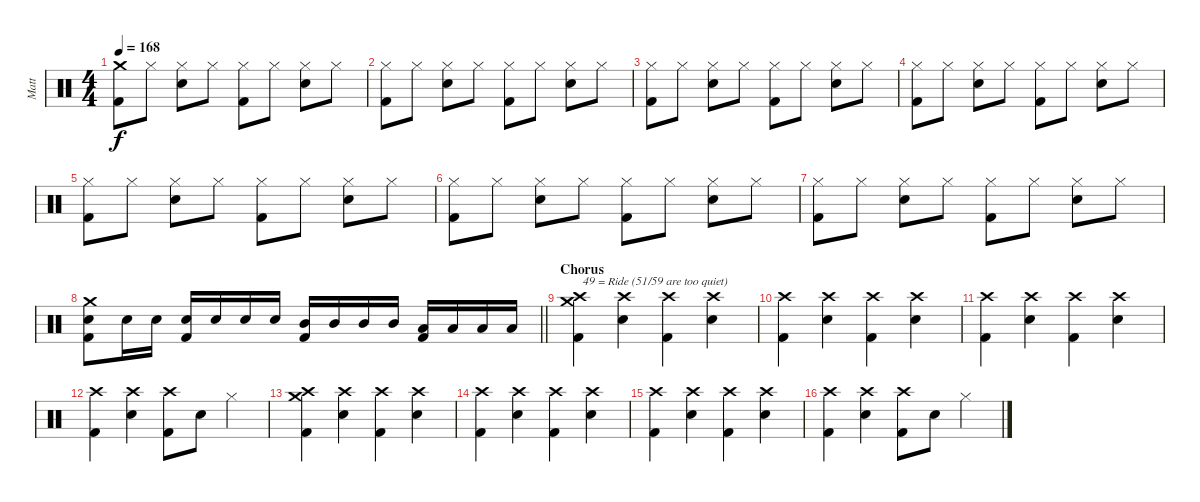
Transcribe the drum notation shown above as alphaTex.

\track ("Matt" "Matt") {instrument percussion}
\staff {score}
\articulation defaults
\ts (4 4)
\tempo 168
\clef neutral
\ks c
("Crash medium (hit)" "Kick (hit) 2").8{dy f} "Hi-Hat (closed)".8 ("Hi-Hat (closed)" "Electric Snare (hit)").8 "Hi-Hat (closed)".8 ("Hi-Hat (closed)" "Kick (hit) 2").8 "Hi-Hat (closed)".8 ("Hi-Hat (closed)" "Electric Snare (hit)").8 "Hi-Hat (closed)".8 |
("Hi-Hat (closed)" "Kick (hit) 2").8 "Hi-Hat (closed)".8 ("Hi-Hat (closed)" "Electric Snare (hit)").8 "Hi-Hat (closed)".8 ("Hi-Hat (closed)" "Kick (hit) 2").8 "Hi-Hat (closed)".8 ("Hi-Hat (closed)" "Electric Snare (hit)").8 "Hi-Hat (closed)".8 |
("Hi-Hat (closed)" "Kick (hit) 2").8 "Hi-Hat (closed)".8 ("Hi-Hat (closed)" "Electric Snare (hit)").8 "Hi-Hat (closed)".8 ("Hi-Hat (closed)" "Kick (hit) 2").8 "Hi-Hat (closed)".8 ("Hi-Hat (closed)" "Electric Snare (hit)").8 "Hi-Hat (closed)".8 |
("Hi-Hat (closed)" "Kick (hit) 2").8 "Hi-Hat (closed)".8 ("Hi-Hat (closed)" "Electric Snare (hit)").8 "Hi-Hat (closed)".8 ("Hi-Hat (closed)" "Kick (hit) 2").8 "Hi-Hat (closed)".8 ("Hi-Hat (closed)" "Electric Snare (hit)").8 "Hi-Hat (closed)".8 |
("Hi-Hat (closed)" "Kick (hit) 2").8 "Hi-Hat (closed)".8 ("Hi-Hat (closed)" "Electric Snare (hit)").8 "Hi-Hat (closed)".8 ("Hi-Hat (closed)" "Kick (hit) 2").8 "Hi-Hat (closed)".8 ("Hi-Hat (closed)" "Electric Snare (hit)").8 "Hi-Hat (closed)".8 |
("Hi-Hat (closed)" "Kick (hit) 2").8 "Hi-Hat (closed)".8 ("Hi-Hat (closed)" "Electric Snare (hit)").8 "Hi-Hat (closed)".8 ("Hi-Hat (closed)" "Kick (hit) 2").8 "Hi-Hat (closed)".8 ("Hi-Hat (closed)" "Electric Snare (hit)").8 "Hi-Hat (closed)".8 |
("Hi-Hat (closed)" "Kick (hit) 2").8 "Hi-Hat (closed)".8 ("Hi-Hat (closed)" "Electric Snare (hit)").8 "Hi-Hat (closed)".8 ("Hi-Hat (closed)" "Kick (hit) 2").8 "Hi-Hat (closed)".8 ("Hi-Hat (closed)" "Electric Snare (hit)").8 "Hi-Hat (closed)".8 |
\barLineRight lightlight
("Crash medium (hit)" "Electric Snare (hit)" "Kick (hit) 2").8 "Electric Snare (hit)".16 "Electric Snare (hit)".16 ("Electric Snare (hit)" "Kick (hit) 2").16 "Electric Snare (hit)".16 "Electric Snare (hit)".16 "Electric Snare (hit)".16 ("Mid Tom (hit)" "Kick (hit) 2").16 "Mid Tom (hit)".16 "Mid Tom (hit)".16 "Mid Tom (hit)".16 ("Low Tom (hit)" "Kick (hit) 2").16 "Low Tom (hit)".16 "Low Tom (hit)".16 "Low Tom (hit)".16 |
\section ("" "Chorus")
("Crash medium (hit)" "Crash high (hit)" "Kick (hit) 2").4{txt " 49 = Ride (51/59 are too quiet)"} ("Crash high (hit)" "Electric Snare (hit)").4 ("Crash high (hit)" "Kick (hit) 2").4 ("Crash high (hit)" "Electric Snare (hit)").4 |
("Crash high (hit)" "Kick (hit) 2").4 ("Crash high (hit)" "Electric Snare (hit)").4 ("Crash high (hit)" "Kick (hit) 2").4 ("Crash high (hit)" "Electric Snare (hit)").4 |
("Crash high (hit)" "Kick (hit) 2").4 ("Crash high (hit)" "Electric Snare (hit)").4 ("Crash high (hit)" "Kick (hit) 2").4 ("Crash high (hit)" "Electric Snare (hit)").4 |
("Crash high (hit)" "Kick (hit) 2").4 ("Crash high (hit)" "Electric Snare (hit)").4 ("Crash high (hit)" "Kick (hit) 2").8 "Electric Snare (hit)".8 "Hi-Hat (closed)".4 |
("Crash medium (hit)" "Crash high (hit)" "Kick (hit) 2").4 ("Crash high (hit)" "Electric Snare (hit)").4 ("Crash high (hit)" "Kick (hit) 2").4 ("Crash high (hit)" "Electric Snare (hit)").4 |
("Crash high (hit)" "Kick (hit) 2").4 ("Crash high (hit)" "Electric Snare (hit)").4 ("Crash high (hit)" "Kick (hit) 2").4 ("Crash high (hit)" "Electric Snare (hit)").4 |
("Crash high (hit)" "Kick (hit) 2").4 ("Crash high (hit)" "Electric Snare (hit)").4 ("Crash high (hit)" "Kick (hit) 2").4 ("Crash high (hit)" "Electric Snare (hit)").4 |
("Crash high (hit)" "Kick (hit) 2").4 ("Crash high (hit)" "Electric Snare (hit)").4 ("Crash high (hit)" "Kick (hit) 2").8 "Electric Snare (hit)".8 "Hi-Hat (closed)".4
